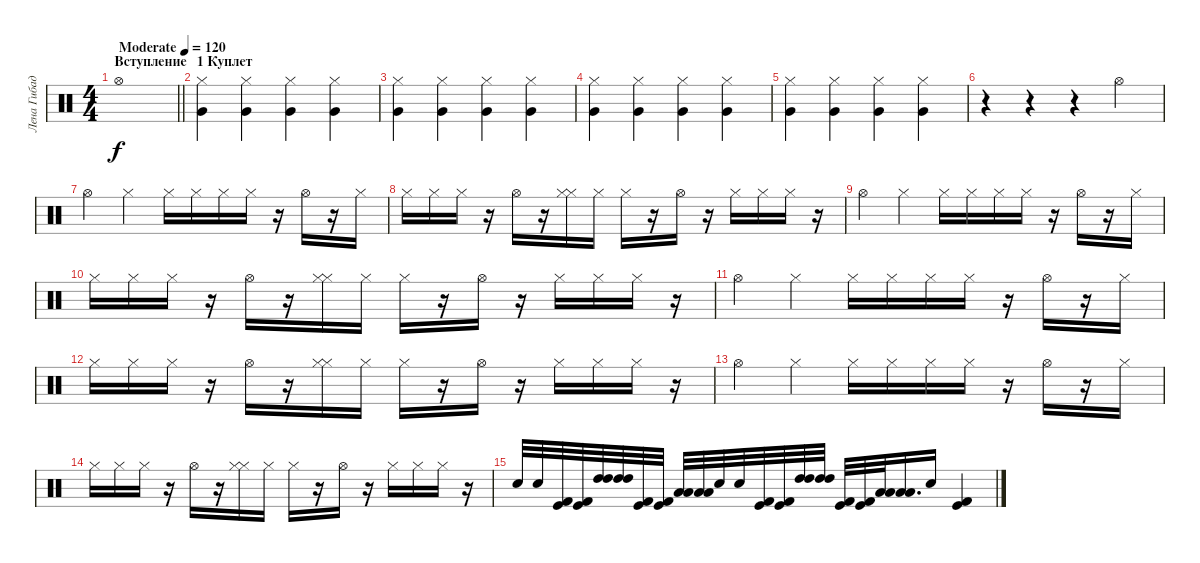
\track ("Лена Гибадулина" "Лена Гибад") {instrument percussion}
\staff {score}
\articulation defaults
\ts (4 4)
\section ("" "Вступление")
\tempo (120 "Moderate")
\clef neutral
\barLineRight lightlight
\ks c "Hi-Hat (open)".1{dy f}
|
\section ("" "1 Куплет")
("Hi-Hat (closed)" "Very Low Tom (hit)").4 ("Very Low Tom (hit)" "Hi-Hat (closed)").4 ("Very Low Tom (hit)" "Hi-Hat (closed)").4 ("Very Low Tom (hit)" "Hi-Hat (closed)").4 |
("Hi-Hat (closed)" "Very Low Tom (hit)").4 ("Very Low Tom (hit)" "Hi-Hat (closed)").4 ("Very Low Tom (hit)" "Hi-Hat (closed)").4 ("Very Low Tom (hit)" "Hi-Hat (closed)").4 |
("Hi-Hat (closed)" "Very Low Tom (hit)").4 ("Very Low Tom (hit)" "Hi-Hat (closed)").4 ("Very Low Tom (hit)" "Hi-Hat (closed)").4 ("Very Low Tom (hit)" "Hi-Hat (closed)").4 |
("Hi-Hat (closed)" "Very Low Tom (hit)").4 ("Very Low Tom (hit)" "Hi-Hat (closed)").4 ("Very Low Tom (hit)" "Hi-Hat (closed)").4 ("Very Low Tom (hit)" "Hi-Hat (closed)").4 |
r.4 r.4 r.4 "Hi-Hat (open)".4 |
"Hi-Hat (open)".4 "Hi-Hat (closed)".4 "Hi-Hat (closed)".16 "Hi-Hat (closed)".16 "Hi-Hat (closed)".16 "Hi-Hat (closed)".16 r.16 "Hi-Hat (open)".16 r.16 "Hi-Hat (closed)".16 |
"Hi-Hat (closed)".16 "Hi-Hat (closed)".16 "Hi-Hat (closed)".16 r.16 "Hi-Hat (open)".16 r.16 ("Hi-Hat (closed)" "Hi-Hat (closed)").16 "Hi-Hat (closed)".16 "Hi-Hat (closed)".16 r.16 "Hi-Hat (open)".16 r.16 "Hi-Hat (closed)".16 "Hi-Hat (closed)".16 "Hi-Hat (closed)".16 r.16 |
"Hi-Hat (open)".4 "Hi-Hat (closed)".4 "Hi-Hat (closed)".16 "Hi-Hat (closed)".16 "Hi-Hat (closed)".16 "Hi-Hat (closed)".16 r.16 "Hi-Hat (open)".16 r.16 "Hi-Hat (closed)".16 |
"Hi-Hat (closed)".16 "Hi-Hat (closed)".16 "Hi-Hat (closed)".16 r.16 "Hi-Hat (open)".16 r.16 ("Hi-Hat (closed)" "Hi-Hat (closed)").16 "Hi-Hat (closed)".16 "Hi-Hat (closed)".16 r.16 "Hi-Hat (open)".16 r.16 "Hi-Hat (closed)".16 "Hi-Hat (closed)".16 "Hi-Hat (closed)".16 r.16 |
"Hi-Hat (open)".4 "Hi-Hat (closed)".4 "Hi-Hat (closed)".16 "Hi-Hat (closed)".16 "Hi-Hat (closed)".16 "Hi-Hat (closed)".16 r.16 "Hi-Hat (open)".16 r.16 "Hi-Hat (closed)".16 |
"Hi-Hat (closed)".16 "Hi-Hat (closed)".16 "Hi-Hat (closed)".16 r.16 "Hi-Hat (open)".16 r.16 ("Hi-Hat (closed)" "Hi-Hat (closed)").16 "Hi-Hat (closed)".16 "Hi-Hat (closed)".16 r.16 "Hi-Hat (open)".16 r.16 "Hi-Hat (closed)".16 "Hi-Hat (closed)".16 "Hi-Hat (closed)".16 r.16 |
"Hi-Hat (open)".4 "Hi-Hat (closed)".4 "Hi-Hat (closed)".16 "Hi-Hat (closed)".16 "Hi-Hat (closed)".16 "Hi-Hat (closed)".16 r.16 "Hi-Hat (open)".16 r.16 "Hi-Hat (closed)".16 |
"Hi-Hat (closed)".16 "Hi-Hat (closed)".16 "Hi-Hat (closed)".16 r.16 "Hi-Hat (open)".16 r.16 ("Hi-Hat (closed)" "Hi-Hat (closed)").16 "Hi-Hat (closed)".16 "Hi-Hat (closed)".16 r.16 "Hi-Hat (open)".16 r.16 "Hi-Hat (closed)".16 "Hi-Hat (closed)".16 "Hi-Hat (closed)".16 r.16 |
"Electric Snare (hit)".32 "Electric Snare (hit)".32 ("Kick (hit)" "Kick (hit) 2").32 ("Kick (hit)" "Kick (hit) 2").32 ("High Tom (hit)" "High Tom (hit)").32 ("High Tom (hit)" "High Tom (hit)").32 ("Kick (hit)" "Kick (hit) 2").32 ("Kick (hit)" "Kick (hit) 2").32 ("Low Tom (hit)" "Low Tom (hit)").32 ("Low Tom (hit)" "Low Tom (hit)").32 "Electric Snare (hit)".32 "Electric Snare (hit)".32 ("Kick (hit)" "Kick (hit) 2").32 ("Kick (hit)" "Kick (hit) 2").32 ("High Tom (hit)" "High Tom (hit)").32 ("High Tom (hit)" "High Tom (hit)").32 ("Kick (hit)" "Kick (hit) 2").32 ("Kick (hit)" "Kick (hit) 2").32 ("Low Tom (hit)" "Low Tom (hit)").32 ("Low Tom (hit)" "Low Tom (hit)").16{d} "Electric Snare (hit)".16 ("Kick (hit)" "Kick (hit) 2").4
